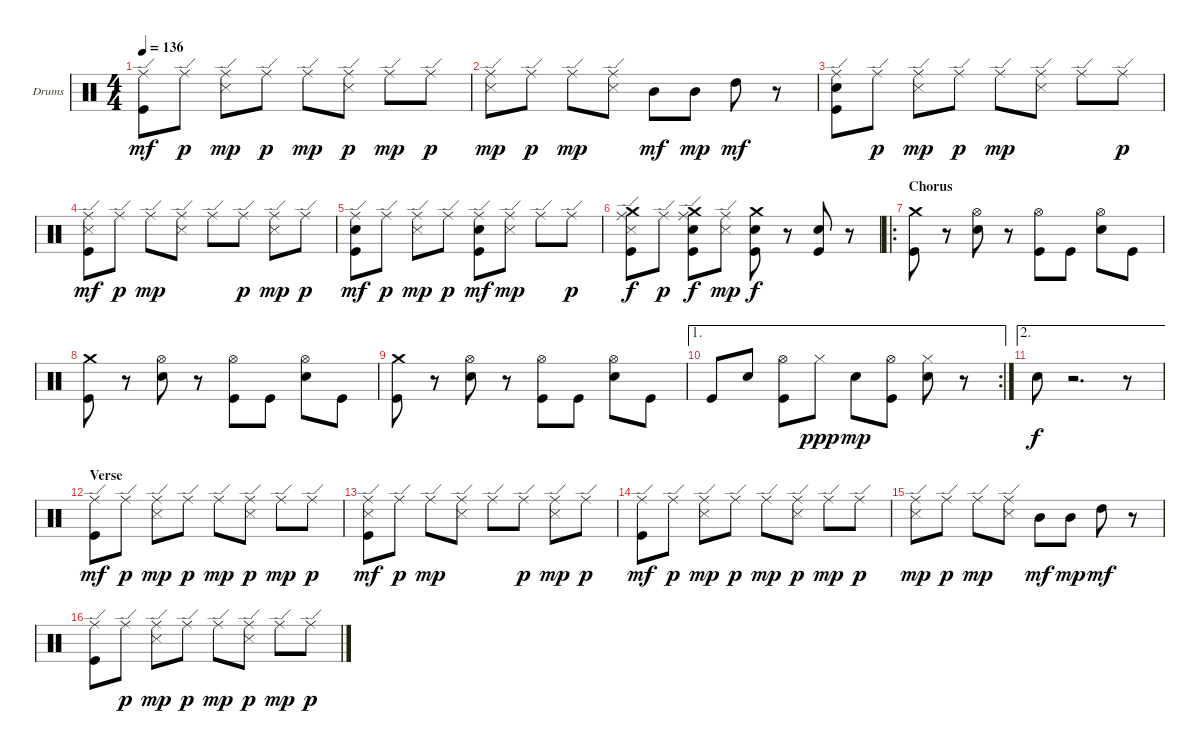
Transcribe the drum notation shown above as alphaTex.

\bracketExtendMode groupsimilarinstruments
\firstSystemTrackNameOrientation horizontal
\otherSystemsTrackNameOrientation horizontal
\track ("Drumkit" "Drums") {instrument percussion}
\staff {score}
\articulation defaults
\ts (4 4)
\tempo 136
\clef neutral
\ks c
("Kick (hit)" "Ride (edge)").8{dy mf} "Ride (edge)".8{dy p} ("Snare (side stick) 3" "Ride (edge)").8{dy mp} "Ride (edge)".8{dy p} "Ride (edge)".8{dy mp} ("Snare (side stick) 3" "Ride (edge)").8{dy p} "Ride (edge)".8{dy mp} "Ride (edge)".8{dy p} |
("Snare (side stick) 3" "Ride (edge)").8{dy mp} "Ride (edge)".8{dy p} "Ride (edge)".8{dy mp} ("Snare (side stick) 3" "Ride (edge)").8 "Mid Tom (hit)".8{dy mf} "Mid Tom (hit)".8{dy mp} "High Tom (hit)".8{dy mf} r.8 |
("Kick (hit)" "Snare (hit) 2" "Ride (edge)").8 "Ride (edge)".8{dy p} ("Snare (side stick) 3" "Ride (edge)").8{dy mp} "Ride (edge)".8{dy p} "Ride (edge)".8{dy mp} ("Snare (side stick) 3" "Ride (edge)").8 "Ride (edge)".8 "Ride (edge)".8{dy p} |
("Kick (hit)" "Snare (side stick) 3" "Ride (edge)").8{dy mf} "Ride (edge)".8{dy p} "Ride (edge)".8{dy mp} ("Snare (side stick) 3" "Ride (edge)").8 "Ride (edge)".8 "Ride (edge)".8{dy p} ("Snare (side stick) 3" "Ride (edge)").8{dy mp} "Ride (edge)".8{dy p} |
("Kick (hit)" "Snare (hit) 2" "Ride (edge)").8{dy mf} "Ride (edge)".8{dy p} ("Snare (side stick) 3" "Ride (edge)").8{dy mp} "Ride (edge)".8{dy p} ("Kick (hit)" "Snare (hit) 2" "Ride (edge)").8{dy mf} ("Snare (side stick) 3" "Ride (edge)").8{dy mp} "Ride (edge)".8 "Ride (edge)".8{dy p} |
("Kick (hit)" "Snare (side stick) 3" "Crash medium (hit)" "Ride (edge)").8{dy f} "Ride (edge)".8{dy p} ("Kick (hit)" "Snare (hit) 2" "Crash medium (hit)" "Ride (edge)").8{dy f} ("Snare (side stick) 3" "Ride (edge)").8{dy mp} ("Kick (hit)" "Snare (hit) 2" "Crash medium (hit)").8{dy f} r.8 ("Kick (hit)" "Snare (hit) 2").8 r.8 |
\ro
\section ("" "Chorus")
("Kick (hit)" "Crash medium (hit)").8 r.8 ("Snare (hit) 2" "Hi-Hat (open)").8 r.8 ("Kick (hit)" "Hi-Hat (open)").8 "Kick (hit)".8 ("Snare (hit) 2" "Hi-Hat (open)").8 "Kick (hit)".8 |
("Kick (hit)" "Crash medium (hit)").8 r.8 ("Snare (hit) 2" "Hi-Hat (open)").8 r.8 ("Kick (hit)" "Hi-Hat (open)").8 "Kick (hit)".8 ("Snare (hit) 2" "Hi-Hat (open)").8 "Kick (hit)".8 |
("Kick (hit)" "Crash medium (hit)").8 r.8 ("Snare (hit) 2" "Hi-Hat (open)").8 r.8 ("Kick (hit)" "Hi-Hat (open)").8 "Kick (hit)".8 ("Snare (hit) 2" "Hi-Hat (open)").8 "Kick (hit)".8 |
\ae 1
\rc 2 "Kick (hit)".8 "Snare (hit) 2".8
("Kick (hit)" "Hi-Hat (open)").8 "Hi-Hat (closed)".8{dy ppp} "Snare (hit) 2".8{dy mp} ("Kick (hit)" "Hi-Hat (open)").8 ("Snare (hit) 2" "Hi-Hat (closed)").8 r.8 |
\ae 2 "Snare (hit) 2".8{dy f}
r.2{d} r.8 |
\section ("" "Verse")
("Kick (hit)" "Ride (edge)").8{dy mf} "Ride (edge)".8{dy p} ("Snare (side stick) 3" "Ride (edge)").8{dy mp} "Ride (edge)".8{dy p} "Ride (edge)".8{dy mp} ("Snare (side stick) 3" "Ride (edge)").8{dy p} "Ride (edge)".8{dy mp} "Ride (edge)".8{dy p} |
("Kick (hit)" "Snare (side stick) 3" "Ride (edge)").8{dy mf} "Ride (edge)".8{dy p} "Ride (edge)".8{dy mp} ("Snare (side stick) 3" "Ride (edge)").8 "Ride (edge)".8 "Ride (edge)".8{dy p} ("Snare (side stick) 3" "Ride (edge)").8{dy mp} "Ride (edge)".8{dy p} |
("Kick (hit)" "Ride (edge)").8{dy mf} "Ride (edge)".8{dy p} ("Snare (side stick) 3" "Ride (edge)").8{dy mp} "Ride (edge)".8{dy p} "Ride (edge)".8{dy mp} ("Snare (side stick) 3" "Ride (edge)").8{dy p} "Ride (edge)".8{dy mp} "Ride (edge)".8{dy p} |
("Snare (side stick) 3" "Ride (edge)").8{dy mp} "Ride (edge)".8{dy p} "Ride (edge)".8{dy mp} ("Snare (side stick) 3" "Ride (edge)").8 "Mid Tom (hit)".8{dy mf} "Mid Tom (hit)".8{dy mp} "High Tom (hit)".8{dy mf} r.8 |
("Kick (hit)" "Ride (edge)").8 "Ride (edge)".8{dy p} ("Snare (side stick) 3" "Ride (edge)").8{dy mp} "Ride (edge)".8{dy p} "Ride (edge)".8{dy mp} ("Snare (side stick) 3" "Ride (edge)").8{dy p} "Ride (edge)".8{dy mp} "Ride (edge)".8{dy p}
